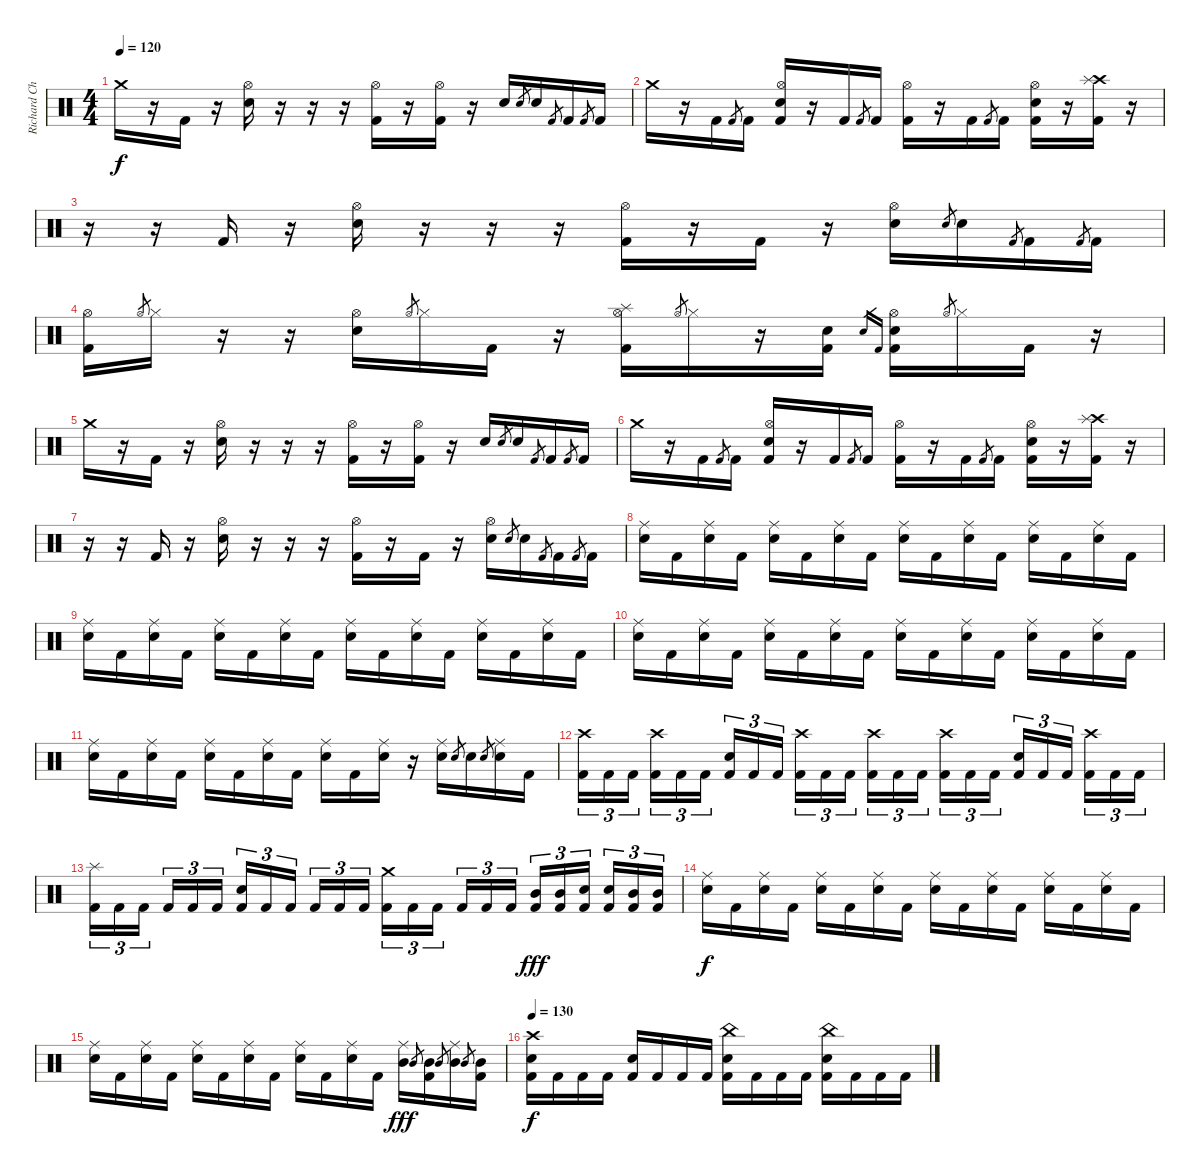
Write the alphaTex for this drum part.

\track ("Richard Christy" "Richard Ch") {instrument percussion}
\staff {score}
\articulation defaults
\ts (4 4)
\tempo 120
\clef neutral
\ks c "Crash medium (hit)".16{dy f}
r.16 "Kick (hit) 2".16 r.16 ("Hi-Hat (open)" "Snare (hit) 2").16 r.16 r.16 r.16 ("Hi-Hat (open)" "Kick (hit) 2").16 r.16 ("Hi-Hat (open)" "Kick (hit) 2").16 r.16 "Snare (hit) 2".16 "Snare (hit) 2".8{gr} "Snare (hit) 2".16 "Kick (hit) 2".8{gr} "Kick (hit) 2".16 "Kick (hit) 2".8{gr} "Kick (hit) 2".16 |
"Crash medium (hit)".16 r.16 "Kick (hit) 2".16 "Kick (hit) 2".8{gr} "Kick (hit) 2".16 ("Hi-Hat (open)" "Snare (hit) 2" "Kick (hit) 2").16 r.16 "Kick (hit) 2".16 "Kick (hit) 2".8{gr} "Kick (hit) 2".16 ("Hi-Hat (open)" "Kick (hit) 2").16 r.16 "Kick (hit) 2".16 "Kick (hit) 2".8{gr} "Kick (hit) 2".16 ("Hi-Hat (open)" "Snare (hit) 2" "Kick (hit) 2").16 r.16 ("Crash high (hit)" "Splash (hit)" "Kick (hit) 2").16 r.16 |
r.16 r.16 "Kick (hit) 2".16 r.16 ("Hi-Hat (open)" "Snare (hit) 2").16 r.16 r.16 r.16 ("Hi-Hat (open)" "Kick (hit) 2").16 r.16 "Kick (hit) 2".16 r.16 ("Hi-Hat (open)" "Snare (hit) 2").16 "Snare (hit) 2".8{gr} "Snare (hit) 2".16 "Kick (hit) 2".8{gr} "Kick (hit) 2".16 "Kick (hit) 2".8{gr} "Kick (hit) 2".16 |
("Hi-Hat (open)" "Kick (hit) 2").16 "Hi-Hat (open)".8{gr} "Hi-Hat (closed)".16 r.16 r.16 ("Hi-Hat (open)" "Snare (hit) 2").16 "Hi-Hat (open)".8{gr} "Hi-Hat (closed)".16 "Kick (hit) 2".16 r.16 ("Hi-Hat (open)" "Splash (hit)" "Kick (hit) 2").16 "Hi-Hat (open)".8{gr} "Hi-Hat (closed)".16 r.16 ("Snare (hit) 2" "Kick (hit) 2").16 "Snare (hit) 2".16{gr} "Kick (hit) 2".16{gr} ("Hi-Hat (open)" "Snare (hit) 2" "Kick (hit) 2").16 "Hi-Hat (open)".8{gr} "Hi-Hat (closed)".16 "Kick (hit) 2".16 r.16 |
"Crash medium (hit)".16 r.16 "Kick (hit) 2".16 r.16 ("Hi-Hat (open)" "Snare (hit) 2").16 r.16 r.16 r.16 ("Hi-Hat (open)" "Kick (hit) 2").16 r.16 ("Hi-Hat (open)" "Kick (hit) 2").16 r.16 "Snare (hit) 2".16 "Snare (hit) 2".8{gr} "Snare (hit) 2".16 "Kick (hit) 2".8{gr} "Kick (hit) 2".16 "Kick (hit) 2".8{gr} "Kick (hit) 2".16 |
"Crash medium (hit)".16 r.16 "Kick (hit) 2".16 "Kick (hit) 2".8{gr} "Kick (hit) 2".16 ("Hi-Hat (open)" "Snare (hit) 2" "Kick (hit) 2").16 r.16 "Kick (hit) 2".16 "Kick (hit) 2".8{gr} "Kick (hit) 2".16 ("Hi-Hat (open)" "Kick (hit) 2").16 r.16 "Kick (hit) 2".16 "Kick (hit) 2".8{gr} "Kick (hit) 2".16 ("Hi-Hat (open)" "Snare (hit) 2" "Kick (hit) 2").16 r.16 ("Crash high (hit)" "Splash (hit)" "Kick (hit) 2").16 r.16 |
r.16 r.16 "Kick (hit) 2".16 r.16 ("Hi-Hat (open)" "Snare (hit) 2").16 r.16 r.16 r.16 ("Hi-Hat (open)" "Kick (hit) 2").16 r.16 "Kick (hit) 2".16 r.16 ("Hi-Hat (open)" "Snare (hit) 2").16 "Snare (hit) 2".8{gr} "Snare (hit) 2".16 "Kick (hit) 2".8{gr} "Kick (hit) 2".16 "Kick (hit) 2".8{gr} "Kick (hit) 2".16 |
("Ride (middle)" "Snare (hit) 2").16 "Kick (hit) 2".16 ("Ride (middle)" "Snare (hit) 2").16 "Kick (hit) 2".16 ("Ride (middle)" "Snare (hit) 2").16 "Kick (hit) 2".16 ("Ride (middle)" "Snare (hit) 2").16 "Kick (hit) 2".16 ("Ride (middle)" "Snare (hit) 2").16 "Kick (hit) 2".16 ("Ride (middle)" "Snare (hit) 2").16 "Kick (hit) 2".16 ("Ride (middle)" "Snare (hit) 2").16 "Kick (hit) 2".16 ("Ride (middle)" "Snare (hit) 2").16 "Kick (hit) 2".16 |
("Ride (middle)" "Snare (hit) 2").16 "Kick (hit) 2".16 ("Ride (middle)" "Snare (hit) 2").16 "Kick (hit) 2".16 ("Ride (middle)" "Snare (hit) 2").16 "Kick (hit) 2".16 ("Ride (middle)" "Snare (hit) 2").16 "Kick (hit) 2".16 ("Ride (middle)" "Snare (hit) 2").16 "Kick (hit) 2".16 ("Ride (middle)" "Snare (hit) 2").16 "Kick (hit) 2".16 ("Ride (middle)" "Snare (hit) 2").16 "Kick (hit) 2".16 ("Ride (middle)" "Snare (hit) 2").16 "Kick (hit) 2".16 |
("Ride (middle)" "Snare (hit) 2").16 "Kick (hit) 2".16 ("Ride (middle)" "Snare (hit) 2").16 "Kick (hit) 2".16 ("Ride (middle)" "Snare (hit) 2").16 "Kick (hit) 2".16 ("Ride (middle)" "Snare (hit) 2").16 "Kick (hit) 2".16 ("Ride (middle)" "Snare (hit) 2").16 "Kick (hit) 2".16 ("Ride (middle)" "Snare (hit) 2").16 "Kick (hit) 2".16 ("Ride (middle)" "Snare (hit) 2").16 "Kick (hit) 2".16 ("Ride (middle)" "Snare (hit) 2").16 "Kick (hit) 2".16 |
("Ride (middle)" "Snare (hit) 2").16 "Kick (hit) 2".16 ("Ride (middle)" "Snare (hit) 2").16 "Kick (hit) 2".16 ("Ride (middle)" "Snare (hit) 2").16 "Kick (hit) 2".16 ("Ride (middle)" "Snare (hit) 2").16 "Kick (hit) 2".16 ("Ride (middle)" "Snare (hit) 2").16 "Kick (hit) 2".16 ("Ride (middle)" "Snare (hit) 2").16 r.16 ("Ride (middle)" "Snare (hit) 2").16 "Snare (hit) 2".8{gr} "Snare (hit) 2".16 "Snare (hit) 2".8{gr} ("Ride (middle)" "Snare (hit) 2").16 "Kick (hit) 2".16 |
("Crash high (hit)" "Kick (hit) 2").16{tu (3 2)} "Kick (hit) 2".16{tu (3 2)} "Kick (hit) 2".16{tu (3 2) beam splitsecondary} ("Crash high (hit)" "Kick (hit) 2").16{tu (3 2)} "Kick (hit) 2".16{tu (3 2)} "Kick (hit) 2".16{tu (3 2)} ("Snare (hit) 2" "Kick (hit) 2").16{tu (3 2)} "Kick (hit) 2".16{tu (3 2)} "Kick (hit) 2".16{tu (3 2) beam splitsecondary} ("Crash high (hit)" "Kick (hit) 2").16{tu (3 2)} "Kick (hit) 2".16{tu (3 2)} "Kick (hit) 2".16{tu (3 2)} ("Crash high (hit)" "Kick (hit) 2").16{tu (3 2)} "Kick (hit) 2".16{tu (3 2)} "Kick (hit) 2".16{tu (3 2) beam splitsecondary} ("Crash high (hit)" "Kick (hit) 2").16{tu (3 2)} "Kick (hit) 2".16{tu (3 2)} "Kick (hit) 2".16{tu (3 2)} ("Snare (hit) 2" "Kick (hit) 2").16{tu (3 2)} "Kick (hit) 2".16{tu (3 2)} "Kick (hit) 2".16{tu (3 2) beam splitsecondary} ("Crash high (hit)" "Kick (hit) 2").16{tu (3 2)} "Kick (hit) 2".16{tu (3 2)} "Kick (hit) 2".16{tu (3 2)} |
("Splash (hit)" "Kick (hit) 2").16{tu (3 2)} "Kick (hit) 2".16{tu (3 2)} "Kick (hit) 2".16{tu (3 2) beam splitsecondary} "Kick (hit) 2".16{tu (3 2)} "Kick (hit) 2".16{tu (3 2)} "Kick (hit) 2".16{tu (3 2)} ("Snare (hit) 2" "Kick (hit) 2").16{tu (3 2)} "Kick (hit) 2".16{tu (3 2)} "Kick (hit) 2".16{tu (3 2) beam splitsecondary} "Kick (hit) 2".16{tu (3 2)} "Kick (hit) 2".16{tu (3 2)} "Kick (hit) 2".16{tu (3 2)} ("Crash medium (hit)" "Kick (hit) 2").16{tu (3 2)} "Kick (hit) 2".16{tu (3 2)} "Kick (hit) 2".16{tu (3 2) beam splitsecondary} "Kick (hit) 2".16{tu (3 2)} "Kick (hit) 2".16{tu (3 2)} "Kick (hit) 2".16{tu (3 2)} ("Mid Tom (hit)" "Kick (hit) 2").16{tu (3 2) dy fff} ("Mid Tom (hit)" "Kick (hit) 2").16{tu (3 2)} ("Snare (hit) 2" "Kick (hit) 2").16{tu (3 2) beam splitsecondary} ("Snare (hit) 2" "Kick (hit) 2").16{tu (3 2)} ("Mid Tom (hit)" "Kick (hit) 2").16{tu (3 2)} ("Mid Tom (hit)" "Kick (hit) 2").16{tu (3 2)} |
("Ride (middle)" "Snare (hit) 2").16{dy f} "Kick (hit) 2".16 ("Ride (middle)" "Snare (hit) 2").16 "Kick (hit) 2".16 ("Ride (middle)" "Snare (hit) 2").16 "Kick (hit) 2".16 ("Ride (middle)" "Snare (hit) 2").16 "Kick (hit) 2".16 ("Ride (middle)" "Snare (hit) 2").16 "Kick (hit) 2".16 ("Ride (middle)" "Snare (hit) 2").16 "Kick (hit) 2".16 ("Ride (middle)" "Snare (hit) 2").16 "Kick (hit) 2".16 ("Ride (middle)" "Snare (hit) 2").16 "Kick (hit) 2".16 |
("Ride (middle)" "Snare (hit) 2").16 "Kick (hit) 2".16 ("Ride (middle)" "Snare (hit) 2").16 "Kick (hit) 2".16 ("Ride (middle)" "Snare (hit) 2").16 "Kick (hit) 2".16 ("Ride (middle)" "Snare (hit) 2").16 "Kick (hit) 2".16 ("Ride (middle)" "Snare (hit) 2").16 "Kick (hit) 2".16 ("Ride (middle)" "Snare (hit) 2").16 "Kick (hit) 2".16 ("Ride (middle)" "Mid Tom (hit)").16{dy fff} "Mid Tom (hit)".8{gr} ("Mid Tom (hit)" "Kick (hit) 2").16 "Mid Tom (hit)".8{gr} ("Ride (middle)" "Mid Tom (hit)").16 "Mid Tom (hit)".8{gr} ("Mid Tom (hit)" "Kick (hit) 2").16 |
\tempo 130
("Crash high (hit)" "Snare (hit) 2" "Kick (hit) 2").16{dy f} "Kick (hit) 2".16 "Kick (hit) 2".16 "Kick (hit) 2".16 ("Snare (hit) 2" "Kick (hit) 2").16 "Kick (hit) 2".16 "Kick (hit) 2".16 "Kick (hit) 2".16 ("China (hit)" "Snare (hit) 2" "Kick (hit) 2").16 "Kick (hit) 2".16 "Kick (hit) 2".16 "Kick (hit) 2".16 ("China (hit)" "Snare (hit) 2" "Kick (hit) 2").16 "Kick (hit) 2".16 "Kick (hit) 2".16 "Kick (hit) 2".16
